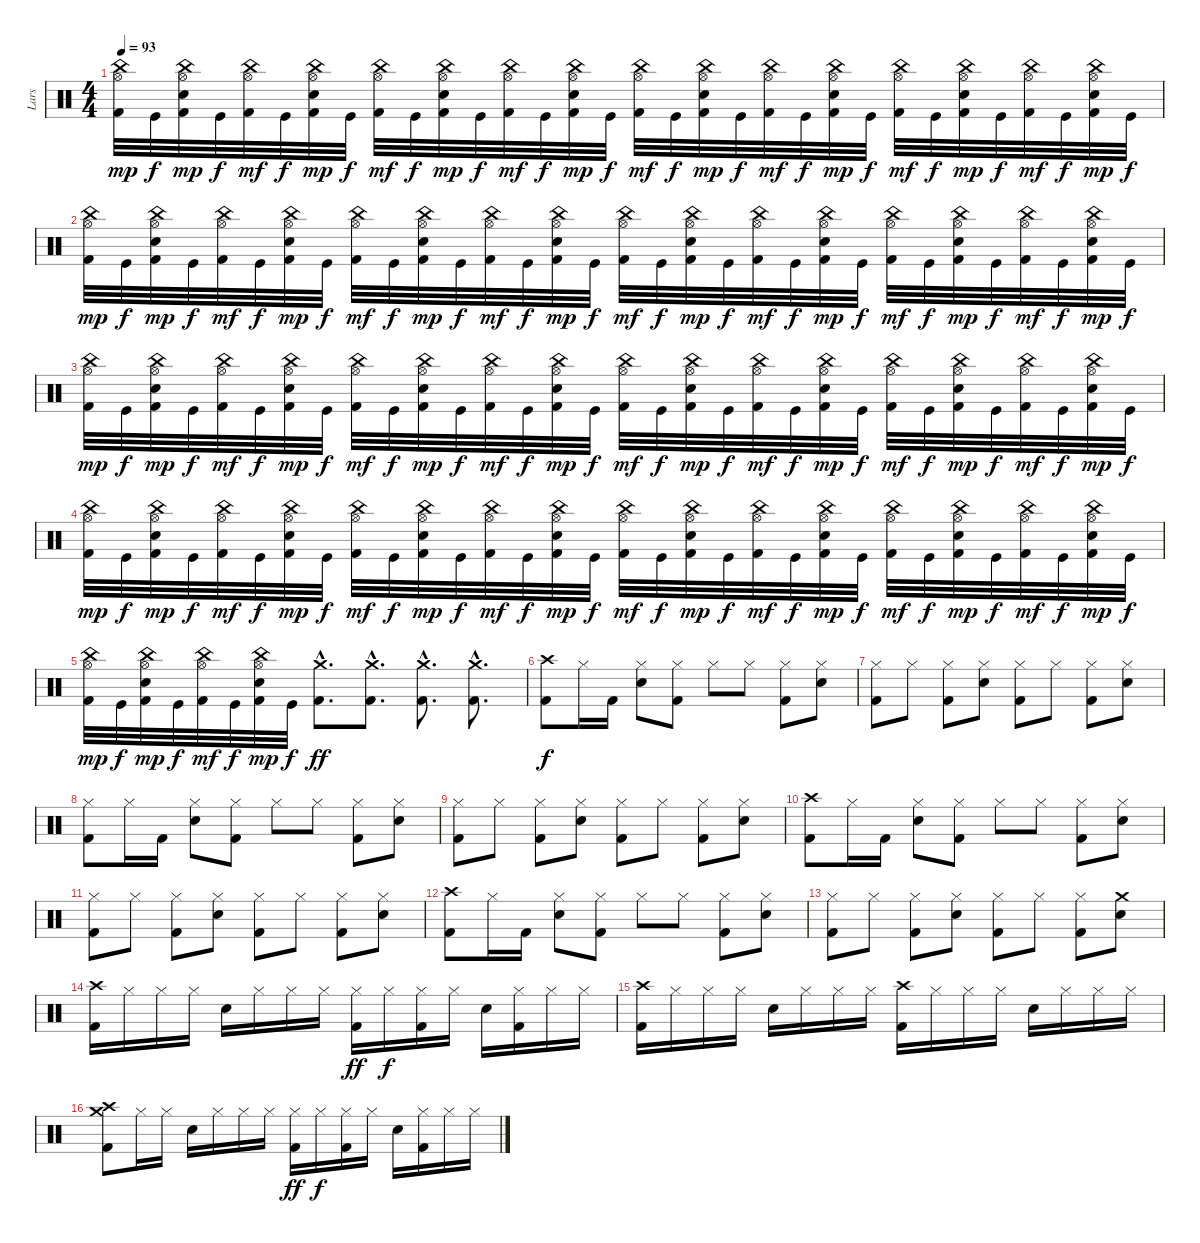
\track ("Lars" "Lars") {instrument percussion}
\staff {score}
\articulation defaults
\ts (4 4)
\tempo 93
\clef neutral
\ks c
("Hi-Hat (open)" "China (hit)" "Kick (hit) 2").32{dy mp} "Kick (hit)".32{dy f} ("Hi-Hat (open)" "China (hit)" "Snare (hit) 2" "Kick (hit) 2").32{dy mp} "Kick (hit)".32{dy f} ("Hi-Hat (open)" "China (hit)" "Kick (hit) 2").32{dy mf} "Kick (hit)".32{dy f} ("Hi-Hat (open)" "China (hit)" "Snare (hit) 2" "Kick (hit) 2").32{dy mp} "Kick (hit)".32{dy f} ("Hi-Hat (open)" "China (hit)" "Kick (hit) 2").32{dy mf} "Kick (hit)".32{dy f} ("Hi-Hat (open)" "China (hit)" "Snare (hit) 2" "Kick (hit) 2").32{dy mp} "Kick (hit)".32{dy f} ("Hi-Hat (open)" "China (hit)" "Kick (hit) 2").32{dy mf} "Kick (hit)".32{dy f} ("Hi-Hat (open)" "China (hit)" "Snare (hit) 2" "Kick (hit) 2").32{dy mp} "Kick (hit)".32{dy f} ("Hi-Hat (open)" "China (hit)" "Kick (hit) 2").32{dy mf} "Kick (hit)".32{dy f} ("Hi-Hat (open)" "China (hit)" "Snare (hit) 2" "Kick (hit) 2").32{dy mp} "Kick (hit)".32{dy f} ("Hi-Hat (open)" "China (hit)" "Kick (hit) 2").32{dy mf} "Kick (hit)".32{dy f} ("Hi-Hat (open)" "China (hit)" "Snare (hit) 2" "Kick (hit) 2").32{dy mp} "Kick (hit)".32{dy f} ("Hi-Hat (open)" "China (hit)" "Kick (hit) 2").32{dy mf} "Kick (hit)".32{dy f} ("Hi-Hat (open)" "China (hit)" "Snare (hit) 2" "Kick (hit) 2").32{dy mp} "Kick (hit)".32{dy f} ("Hi-Hat (open)" "China (hit)" "Kick (hit) 2").32{dy mf} "Kick (hit)".32{dy f} ("Hi-Hat (open)" "China (hit)" "Snare (hit) 2" "Kick (hit) 2").32{dy mp} "Kick (hit)".32{dy f} |
("Hi-Hat (open)" "China (hit)" "Kick (hit) 2").32{dy mp} "Kick (hit)".32{dy f} ("Hi-Hat (open)" "China (hit)" "Snare (hit) 2" "Kick (hit) 2").32{dy mp} "Kick (hit)".32{dy f} ("Hi-Hat (open)" "China (hit)" "Kick (hit) 2").32{dy mf} "Kick (hit)".32{dy f} ("Hi-Hat (open)" "China (hit)" "Snare (hit) 2" "Kick (hit) 2").32{dy mp} "Kick (hit)".32{dy f} ("Hi-Hat (open)" "China (hit)" "Kick (hit) 2").32{dy mf} "Kick (hit)".32{dy f} ("Hi-Hat (open)" "China (hit)" "Snare (hit) 2" "Kick (hit) 2").32{dy mp} "Kick (hit)".32{dy f} ("Hi-Hat (open)" "China (hit)" "Kick (hit) 2").32{dy mf} "Kick (hit)".32{dy f} ("Hi-Hat (open)" "China (hit)" "Snare (hit) 2" "Kick (hit) 2").32{dy mp} "Kick (hit)".32{dy f} ("Hi-Hat (open)" "China (hit)" "Kick (hit) 2").32{dy mf} "Kick (hit)".32{dy f} ("Hi-Hat (open)" "China (hit)" "Snare (hit) 2" "Kick (hit) 2").32{dy mp} "Kick (hit)".32{dy f} ("Hi-Hat (open)" "China (hit)" "Kick (hit) 2").32{dy mf} "Kick (hit)".32{dy f} ("Hi-Hat (open)" "China (hit)" "Snare (hit) 2" "Kick (hit) 2").32{dy mp} "Kick (hit)".32{dy f} ("Hi-Hat (open)" "China (hit)" "Kick (hit) 2").32{dy mf} "Kick (hit)".32{dy f} ("Hi-Hat (open)" "China (hit)" "Snare (hit) 2" "Kick (hit) 2").32{dy mp} "Kick (hit)".32{dy f} ("Hi-Hat (open)" "China (hit)" "Kick (hit) 2").32{dy mf} "Kick (hit)".32{dy f} ("Hi-Hat (open)" "China (hit)" "Snare (hit) 2" "Kick (hit) 2").32{dy mp} "Kick (hit)".32{dy f} |
("Hi-Hat (open)" "China (hit)" "Kick (hit) 2").32{dy mp} "Kick (hit)".32{dy f} ("Hi-Hat (open)" "China (hit)" "Snare (hit) 2" "Kick (hit) 2").32{dy mp} "Kick (hit)".32{dy f} ("Hi-Hat (open)" "China (hit)" "Kick (hit) 2").32{dy mf} "Kick (hit)".32{dy f} ("Hi-Hat (open)" "China (hit)" "Snare (hit) 2" "Kick (hit) 2").32{dy mp} "Kick (hit)".32{dy f} ("Hi-Hat (open)" "China (hit)" "Kick (hit) 2").32{dy mf} "Kick (hit)".32{dy f} ("Hi-Hat (open)" "China (hit)" "Snare (hit) 2" "Kick (hit) 2").32{dy mp} "Kick (hit)".32{dy f} ("Hi-Hat (open)" "China (hit)" "Kick (hit) 2").32{dy mf} "Kick (hit)".32{dy f} ("Hi-Hat (open)" "China (hit)" "Snare (hit) 2" "Kick (hit) 2").32{dy mp} "Kick (hit)".32{dy f} ("Hi-Hat (open)" "China (hit)" "Kick (hit) 2").32{dy mf} "Kick (hit)".32{dy f} ("Hi-Hat (open)" "China (hit)" "Snare (hit) 2" "Kick (hit) 2").32{dy mp} "Kick (hit)".32{dy f} ("Hi-Hat (open)" "China (hit)" "Kick (hit) 2").32{dy mf} "Kick (hit)".32{dy f} ("Hi-Hat (open)" "China (hit)" "Snare (hit) 2" "Kick (hit) 2").32{dy mp} "Kick (hit)".32{dy f} ("Hi-Hat (open)" "China (hit)" "Kick (hit) 2").32{dy mf} "Kick (hit)".32{dy f} ("Hi-Hat (open)" "China (hit)" "Snare (hit) 2" "Kick (hit) 2").32{dy mp} "Kick (hit)".32{dy f} ("Hi-Hat (open)" "China (hit)" "Kick (hit) 2").32{dy mf} "Kick (hit)".32{dy f} ("Hi-Hat (open)" "China (hit)" "Snare (hit) 2" "Kick (hit) 2").32{dy mp} "Kick (hit)".32{dy f} |
("Hi-Hat (open)" "China (hit)" "Kick (hit) 2").32{dy mp} "Kick (hit)".32{dy f} ("Hi-Hat (open)" "China (hit)" "Snare (hit) 2" "Kick (hit) 2").32{dy mp} "Kick (hit)".32{dy f} ("Hi-Hat (open)" "China (hit)" "Kick (hit) 2").32{dy mf} "Kick (hit)".32{dy f} ("Hi-Hat (open)" "China (hit)" "Snare (hit) 2" "Kick (hit) 2").32{dy mp} "Kick (hit)".32{dy f} ("Hi-Hat (open)" "China (hit)" "Kick (hit) 2").32{dy mf} "Kick (hit)".32{dy f} ("Hi-Hat (open)" "China (hit)" "Snare (hit) 2" "Kick (hit) 2").32{dy mp} "Kick (hit)".32{dy f} ("Hi-Hat (open)" "China (hit)" "Kick (hit) 2").32{dy mf} "Kick (hit)".32{dy f} ("Hi-Hat (open)" "China (hit)" "Snare (hit) 2" "Kick (hit) 2").32{dy mp} "Kick (hit)".32{dy f} ("Hi-Hat (open)" "China (hit)" "Kick (hit) 2").32{dy mf} "Kick (hit)".32{dy f} ("Hi-Hat (open)" "China (hit)" "Snare (hit) 2" "Kick (hit) 2").32{dy mp} "Kick (hit)".32{dy f} ("Hi-Hat (open)" "China (hit)" "Kick (hit) 2").32{dy mf} "Kick (hit)".32{dy f} ("Hi-Hat (open)" "China (hit)" "Snare (hit) 2" "Kick (hit) 2").32{dy mp} "Kick (hit)".32{dy f} ("Hi-Hat (open)" "China (hit)" "Kick (hit) 2").32{dy mf} "Kick (hit)".32{dy f} ("Hi-Hat (open)" "China (hit)" "Snare (hit) 2" "Kick (hit) 2").32{dy mp} "Kick (hit)".32{dy f} ("Hi-Hat (open)" "China (hit)" "Kick (hit) 2").32{dy mf} "Kick (hit)".32{dy f} ("Hi-Hat (open)" "China (hit)" "Snare (hit) 2" "Kick (hit) 2").32{dy mp} "Kick (hit)".32{dy f} |
("Hi-Hat (open)" "China (hit)" "Kick (hit) 2").32{dy mp} "Kick (hit)".32{dy f} ("Hi-Hat (open)" "China (hit)" "Snare (hit) 2" "Kick (hit) 2").32{dy mp} "Kick (hit)".32{dy f} ("Hi-Hat (open)" "China (hit)" "Kick (hit) 2").32{dy mf} "Kick (hit)".32{dy f} ("Hi-Hat (open)" "China (hit)" "Snare (hit) 2" "Kick (hit) 2").32{dy mp} "Kick (hit)".32{dy f} ("Crash medium (hit)"{hac} "Kick (hit) 2"{hac}).8{d dy ff} ("Crash medium (hit)"{hac} "Kick (hit) 2"{hac}).8{d} ("Crash medium (hit)"{hac} "Kick (hit) 2"{hac}).8{d} ("Crash medium (hit)"{hac} "Kick (hit) 2"{hac}).8{d} |
("Crash high (hit)" "Kick (hit) 2").8{dy f} "Hi-Hat (closed)".16 "Kick (hit) 2".16 ("Hi-Hat (closed)" "Snare (hit) 2").8 ("Hi-Hat (closed)" "Kick (hit) 2").8 "Hi-Hat (closed)".8 "Hi-Hat (closed)".8 ("Hi-Hat (closed)" "Kick (hit) 2").8 ("Hi-Hat (closed)" "Snare (hit) 2").8 |
("Hi-Hat (closed)" "Kick (hit) 2").8 "Hi-Hat (closed)".8 ("Hi-Hat (closed)" "Kick (hit) 2").8 ("Hi-Hat (closed)" "Snare (hit) 2").8 ("Hi-Hat (closed)" "Kick (hit) 2").8 "Hi-Hat (closed)".8 ("Hi-Hat (closed)" "Kick (hit) 2").8 ("Hi-Hat (closed)" "Snare (hit) 2").8 |
("Hi-Hat (closed)" "Kick (hit) 2").8 "Hi-Hat (closed)".16 "Kick (hit) 2".16 ("Hi-Hat (closed)" "Snare (hit) 2").8 ("Hi-Hat (closed)" "Kick (hit) 2").8 "Hi-Hat (closed)".8 "Hi-Hat (closed)".8 ("Hi-Hat (closed)" "Kick (hit) 2").8 ("Hi-Hat (closed)" "Snare (hit) 2").8 |
("Hi-Hat (closed)" "Kick (hit) 2").8 "Hi-Hat (closed)".8 ("Hi-Hat (closed)" "Kick (hit) 2").8 ("Hi-Hat (closed)" "Snare (hit) 2").8 ("Hi-Hat (closed)" "Kick (hit) 2").8 "Hi-Hat (closed)".8 ("Hi-Hat (closed)" "Kick (hit) 2").8 ("Hi-Hat (closed)" "Snare (hit) 2").8 |
("Crash high (hit)" "Kick (hit) 2").8 "Hi-Hat (closed)".16 "Kick (hit) 2".16 ("Hi-Hat (closed)" "Snare (hit) 2").8 ("Hi-Hat (closed)" "Kick (hit) 2").8 "Hi-Hat (closed)".8 "Hi-Hat (closed)".8 ("Hi-Hat (closed)" "Kick (hit) 2").8 ("Hi-Hat (closed)" "Snare (hit) 2").8 |
("Hi-Hat (closed)" "Kick (hit) 2").8 "Hi-Hat (closed)".8 ("Hi-Hat (closed)" "Kick (hit) 2").8 ("Hi-Hat (closed)" "Snare (hit) 2").8 ("Hi-Hat (closed)" "Kick (hit) 2").8 "Hi-Hat (closed)".8 ("Hi-Hat (closed)" "Kick (hit) 2").8 ("Hi-Hat (closed)" "Snare (hit) 2").8 |
("Crash high (hit)" "Kick (hit) 2").8 "Hi-Hat (closed)".16 "Kick (hit) 2".16 ("Hi-Hat (closed)" "Snare (hit) 2").8 ("Hi-Hat (closed)" "Kick (hit) 2").8 "Hi-Hat (closed)".8 "Hi-Hat (closed)".8 ("Hi-Hat (closed)" "Kick (hit) 2").8 ("Hi-Hat (closed)" "Snare (hit) 2").8 |
("Hi-Hat (closed)" "Kick (hit) 2").8 "Hi-Hat (closed)".8 ("Hi-Hat (closed)" "Kick (hit) 2").8 ("Hi-Hat (closed)" "Snare (hit) 2").8 ("Hi-Hat (closed)" "Kick (hit) 2").8 "Hi-Hat (closed)".8 ("Hi-Hat (closed)" "Kick (hit) 2").8 ("Crash medium (hit)" "Snare (hit) 2").8 |
("Crash high (hit)" "Kick (hit) 2").16 "Hi-Hat (closed)".16 "Hi-Hat (closed)".16 "Hi-Hat (closed)".16 "Snare (hit) 2".16 "Hi-Hat (closed)".16 "Hi-Hat (closed)".16 "Hi-Hat (closed)".16 ("Hi-Hat (closed)" "Kick (hit) 2").16{dy ff} "Hi-Hat (closed)".16{dy f} ("Hi-Hat (closed)" "Kick (hit) 2").16 "Hi-Hat (closed)".16 "Snare (hit) 2".16 ("Hi-Hat (closed)" "Kick (hit) 2").16 "Hi-Hat (closed)".16 "Hi-Hat (closed)".16 |
("Crash high (hit)" "Kick (hit) 2").16 "Hi-Hat (closed)".16 "Hi-Hat (closed)".16 "Hi-Hat (closed)".16 "Snare (hit) 2".16 "Hi-Hat (closed)".16 "Hi-Hat (closed)".16 "Hi-Hat (closed)".16 ("Crash high (hit)" "Kick (hit) 2").16 "Hi-Hat (closed)".16 "Hi-Hat (closed)".16 "Hi-Hat (closed)".16 "Snare (hit) 2".16 "Hi-Hat (closed)".16 "Hi-Hat (closed)".16 "Hi-Hat (closed)".16 |
("Crash high (hit)" "Crash medium (hit)" "Kick (hit) 2").8 "Hi-Hat (closed)".16 "Hi-Hat (closed)".16 "Snare (hit) 2".16 "Hi-Hat (closed)".16 "Hi-Hat (closed)".16 "Hi-Hat (closed)".16 ("Hi-Hat (closed)" "Kick (hit) 2").16{dy ff} "Hi-Hat (closed)".16{dy f} ("Hi-Hat (closed)" "Kick (hit) 2").16 "Hi-Hat (closed)".16 "Snare (hit) 2".16 ("Hi-Hat (closed)" "Kick (hit) 2").16 "Hi-Hat (closed)".16 "Hi-Hat (closed)".16
